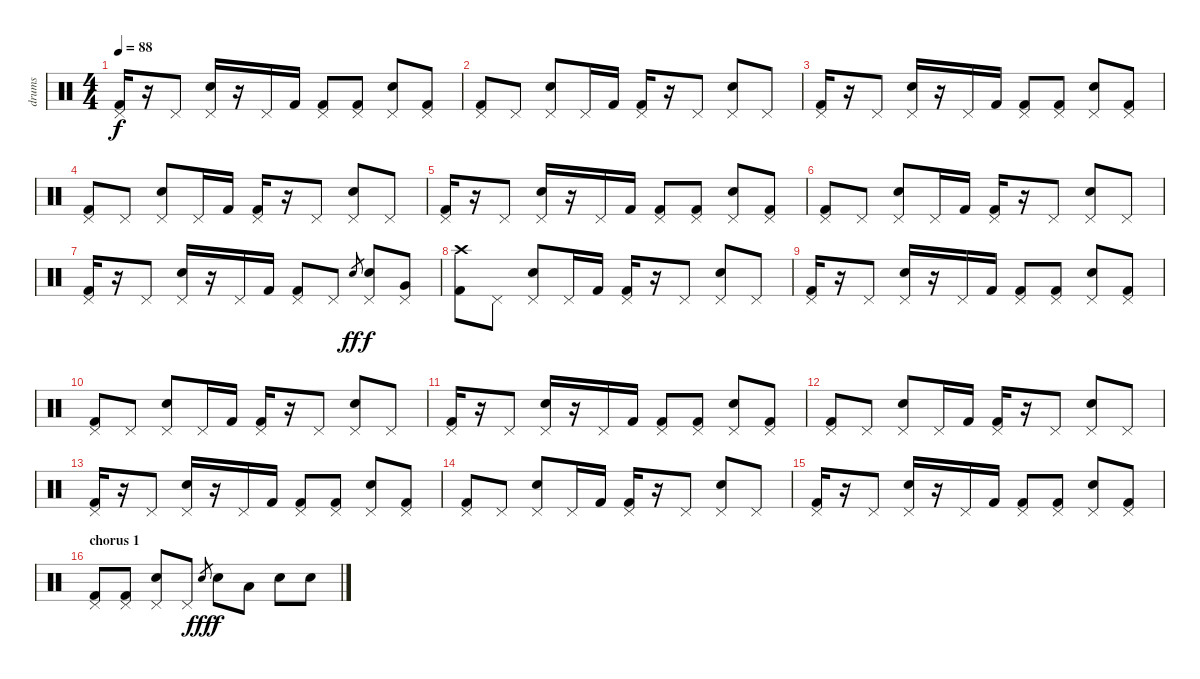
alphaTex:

\track ("drums" "drums") {instrument percussion}
\staff {score}
\articulation defaults
\ts (4 4)
\tempo 88
\clef neutral
\ks c
("Kick (hit) 2" "Pedal Hi-Hat (hit)").16{dy f} r.16 "Pedal Hi-Hat (hit)".8 ("Electric Snare (hit)" "Pedal Hi-Hat (hit)").16 r.16 "Pedal Hi-Hat (hit)".16 "Kick (hit) 2".16 ("Kick (hit) 2" "Pedal Hi-Hat (hit)").8 ("Kick (hit) 2" "Pedal Hi-Hat (hit)").8 ("Electric Snare (hit)" "Pedal Hi-Hat (hit)").8 ("Kick (hit) 2" "Pedal Hi-Hat (hit)").8 |
("Kick (hit) 2" "Pedal Hi-Hat (hit)").8 "Pedal Hi-Hat (hit)".8 ("Electric Snare (hit)" "Pedal Hi-Hat (hit)").8 "Pedal Hi-Hat (hit)".16 "Kick (hit) 2".16 ("Kick (hit) 2" "Pedal Hi-Hat (hit)").16 r.16 "Pedal Hi-Hat (hit)".8 ("Electric Snare (hit)" "Pedal Hi-Hat (hit)").8 "Pedal Hi-Hat (hit)".8 |
("Kick (hit) 2" "Pedal Hi-Hat (hit)").16 r.16 "Pedal Hi-Hat (hit)".8 ("Electric Snare (hit)" "Pedal Hi-Hat (hit)").16 r.16 "Pedal Hi-Hat (hit)".16 "Kick (hit) 2".16 ("Kick (hit) 2" "Pedal Hi-Hat (hit)").8 ("Kick (hit) 2" "Pedal Hi-Hat (hit)").8 ("Electric Snare (hit)" "Pedal Hi-Hat (hit)").8 ("Kick (hit) 2" "Pedal Hi-Hat (hit)").8 |
("Kick (hit) 2" "Pedal Hi-Hat (hit)").8 "Pedal Hi-Hat (hit)".8 ("Electric Snare (hit)" "Pedal Hi-Hat (hit)").8 "Pedal Hi-Hat (hit)".16 "Kick (hit) 2".16 ("Kick (hit) 2" "Pedal Hi-Hat (hit)").16 r.16 "Pedal Hi-Hat (hit)".8 ("Electric Snare (hit)" "Pedal Hi-Hat (hit)").8 "Pedal Hi-Hat (hit)".8 |
("Kick (hit) 2" "Pedal Hi-Hat (hit)").16 r.16 "Pedal Hi-Hat (hit)".8 ("Electric Snare (hit)" "Pedal Hi-Hat (hit)").16 r.16 "Pedal Hi-Hat (hit)".16 "Kick (hit) 2".16 ("Kick (hit) 2" "Pedal Hi-Hat (hit)").8 ("Kick (hit) 2" "Pedal Hi-Hat (hit)").8 ("Electric Snare (hit)" "Pedal Hi-Hat (hit)").8 ("Kick (hit) 2" "Pedal Hi-Hat (hit)").8 |
("Kick (hit) 2" "Pedal Hi-Hat (hit)").8 "Pedal Hi-Hat (hit)".8 ("Electric Snare (hit)" "Pedal Hi-Hat (hit)").8 "Pedal Hi-Hat (hit)".16 "Kick (hit) 2".16 ("Kick (hit) 2" "Pedal Hi-Hat (hit)").16 r.16 "Pedal Hi-Hat (hit)".8 ("Electric Snare (hit)" "Pedal Hi-Hat (hit)").8 "Pedal Hi-Hat (hit)".8 |
("Kick (hit) 2" "Pedal Hi-Hat (hit)").16 r.16 "Pedal Hi-Hat (hit)".8 ("Electric Snare (hit)" "Pedal Hi-Hat (hit)").16 r.16 "Pedal Hi-Hat (hit)".16 "Kick (hit) 2".16 ("Kick (hit) 2" "Pedal Hi-Hat (hit)").8 "Pedal Hi-Hat (hit)".8 "Electric Snare (hit)".8{gr dy ff} ("Electric Snare (hit)" "Pedal Hi-Hat (hit)").8{dy f} ("Very Low Tom (hit)" "Pedal Hi-Hat (hit)").8 |
("Kick (hit) 2" "Crash high (hit)").8 "Pedal Hi-Hat (hit)".8 ("Electric Snare (hit)" "Pedal Hi-Hat (hit)").8 "Pedal Hi-Hat (hit)".16 "Kick (hit) 2".16 ("Kick (hit) 2" "Pedal Hi-Hat (hit)").16 r.16 "Pedal Hi-Hat (hit)".8 ("Electric Snare (hit)" "Pedal Hi-Hat (hit)").8 "Pedal Hi-Hat (hit)".8 |
("Kick (hit) 2" "Pedal Hi-Hat (hit)").16 r.16 "Pedal Hi-Hat (hit)".8 ("Electric Snare (hit)" "Pedal Hi-Hat (hit)").16 r.16 "Pedal Hi-Hat (hit)".16 "Kick (hit) 2".16 ("Kick (hit) 2" "Pedal Hi-Hat (hit)").8 ("Kick (hit) 2" "Pedal Hi-Hat (hit)").8 ("Electric Snare (hit)" "Pedal Hi-Hat (hit)").8 ("Kick (hit) 2" "Pedal Hi-Hat (hit)").8 |
("Kick (hit) 2" "Pedal Hi-Hat (hit)").8 "Pedal Hi-Hat (hit)".8 ("Electric Snare (hit)" "Pedal Hi-Hat (hit)").8 "Pedal Hi-Hat (hit)".16 "Kick (hit) 2".16 ("Kick (hit) 2" "Pedal Hi-Hat (hit)").16 r.16 "Pedal Hi-Hat (hit)".8 ("Electric Snare (hit)" "Pedal Hi-Hat (hit)").8 "Pedal Hi-Hat (hit)".8 |
("Kick (hit) 2" "Pedal Hi-Hat (hit)").16 r.16 "Pedal Hi-Hat (hit)".8 ("Electric Snare (hit)" "Pedal Hi-Hat (hit)").16 r.16 "Pedal Hi-Hat (hit)".16 "Kick (hit) 2".16 ("Kick (hit) 2" "Pedal Hi-Hat (hit)").8 ("Kick (hit) 2" "Pedal Hi-Hat (hit)").8 ("Electric Snare (hit)" "Pedal Hi-Hat (hit)").8 ("Kick (hit) 2" "Pedal Hi-Hat (hit)").8 |
("Kick (hit) 2" "Pedal Hi-Hat (hit)").8 "Pedal Hi-Hat (hit)".8 ("Electric Snare (hit)" "Pedal Hi-Hat (hit)").8 "Pedal Hi-Hat (hit)".16 "Kick (hit) 2".16 ("Kick (hit) 2" "Pedal Hi-Hat (hit)").16 r.16 "Pedal Hi-Hat (hit)".8 ("Electric Snare (hit)" "Pedal Hi-Hat (hit)").8 "Pedal Hi-Hat (hit)".8 |
("Kick (hit) 2" "Pedal Hi-Hat (hit)").16 r.16 "Pedal Hi-Hat (hit)".8 ("Electric Snare (hit)" "Pedal Hi-Hat (hit)").16 r.16 "Pedal Hi-Hat (hit)".16 "Kick (hit) 2".16 ("Kick (hit) 2" "Pedal Hi-Hat (hit)").8 ("Kick (hit) 2" "Pedal Hi-Hat (hit)").8 ("Electric Snare (hit)" "Pedal Hi-Hat (hit)").8 ("Kick (hit) 2" "Pedal Hi-Hat (hit)").8 |
("Kick (hit) 2" "Pedal Hi-Hat (hit)").8 "Pedal Hi-Hat (hit)".8 ("Electric Snare (hit)" "Pedal Hi-Hat (hit)").8 "Pedal Hi-Hat (hit)".16 "Kick (hit) 2".16 ("Kick (hit) 2" "Pedal Hi-Hat (hit)").16 r.16 "Pedal Hi-Hat (hit)".8 ("Electric Snare (hit)" "Pedal Hi-Hat (hit)").8 "Pedal Hi-Hat (hit)".8 |
("Kick (hit) 2" "Pedal Hi-Hat (hit)").16 r.16 "Pedal Hi-Hat (hit)".8 ("Electric Snare (hit)" "Pedal Hi-Hat (hit)").16 r.16 "Pedal Hi-Hat (hit)".16 "Kick (hit) 2".16 ("Kick (hit) 2" "Pedal Hi-Hat (hit)").8 ("Kick (hit) 2" "Pedal Hi-Hat (hit)").8 ("Electric Snare (hit)" "Pedal Hi-Hat (hit)").8 ("Kick (hit) 2" "Pedal Hi-Hat (hit)").8 |
\section ("" "chorus 1")
("Kick (hit) 2" "Pedal Hi-Hat (hit)").8 ("Kick (hit) 2" "Pedal Hi-Hat (hit)").8 ("Electric Snare (hit)" "Pedal Hi-Hat (hit)").8 "Pedal Hi-Hat (hit)".8 "Electric Snare (hit)".8{gr dy fff} "Electric Snare (hit)".8{dy f} "Low Tom (hit)".8 "Electric Snare (hit)".8 "Electric Snare (hit)".8
